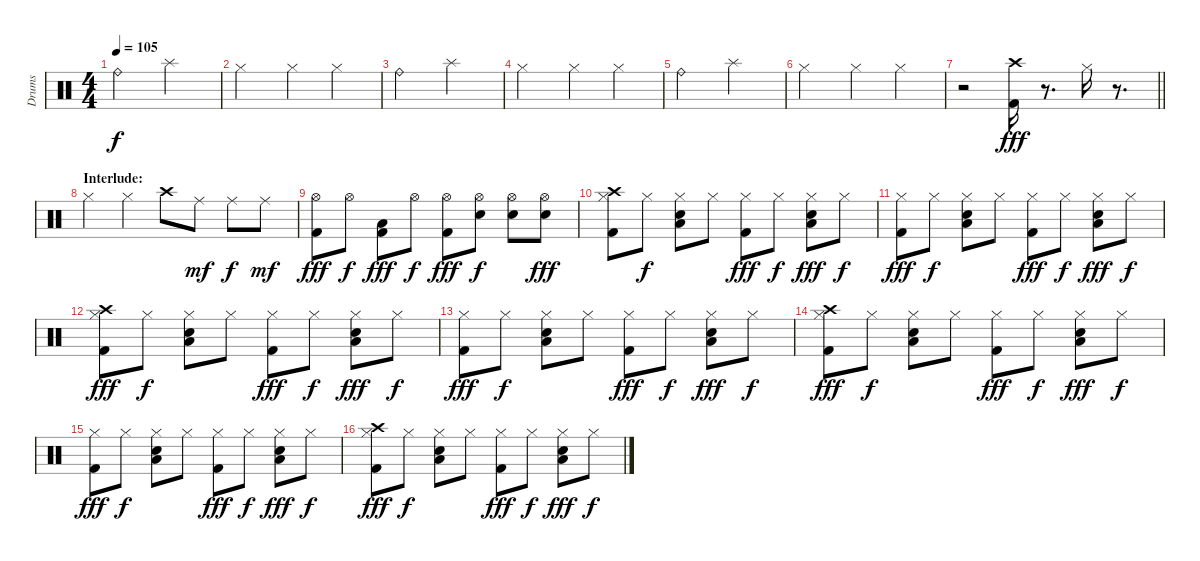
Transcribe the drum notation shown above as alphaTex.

\track ("Drums" "Drums") {instrument percussion}
\staff {score}
\articulation defaults
\ts (4 4)
\tempo 105
\clef neutral
\ks c "Ride (bell)".2{dy f} "Splash (hit)".2
|
"Hi-Hat (closed)".2 "Hi-Hat (closed)".4 "Hi-Hat (closed)".4 |
"Ride (bell)".2 "Splash (hit)".2 |
"Hi-Hat (closed)".2 "Hi-Hat (closed)".4 "Hi-Hat (closed)".4 |
"Ride (bell)".2 "Splash (hit)".2 |
"Hi-Hat (closed)".2 "Hi-Hat (closed)".4 "Hi-Hat (closed)".4 |
\barLineRight lightlight
r.2 ("Kick (hit) 2" "Crash high (hit)").16{dy fff} r.8{d} "Hi-Hat (closed)".16 r.8{d} |
\section ("" "Interlude:")
"Hi-Hat (closed)".4 "Hi-Hat (closed)".4 "Crash high (hit)".8 "Ride (middle)".8{dy mf} "Ride (middle)".8{dy f} "Ride (middle)".8{dy mf} |
("Hi-Hat (open)" "Kick (hit) 2").8{dy fff} "Hi-Hat (open)".8{dy f} ("Low Floor Tom (hit)" "Kick (hit) 2").8{dy fff} "Hi-Hat (open)".8{dy f} ("Hi-Hat (open)" "Kick (hit) 2").8{dy fff} ("Hi-Hat (open)" "Snare (hit) 2").8{dy f} ("Hi-Hat (open)" "Snare (hit) 2").8 ("Hi-Hat (open)" "Snare (hit) 2").8{dy fff} |
("Crash high (hit)" "Hi-Hat (closed)" "Kick (hit) 2").8 "Hi-Hat (closed)".8{dy f} ("Hi-Hat (closed)" "Low Floor Tom (hit)" "Snare (hit) 2").8 "Hi-Hat (closed)".8 ("Hi-Hat (closed)" "Kick (hit) 2").8{dy fff} "Hi-Hat (closed)".8{dy f} ("Hi-Hat (closed)" "Low Floor Tom (hit)" "Snare (hit) 2").8{dy fff} "Hi-Hat (closed)".8{dy f} |
("Hi-Hat (closed)" "Kick (hit) 2").8{dy fff} "Hi-Hat (closed)".8{dy f} ("Hi-Hat (closed)" "Low Floor Tom (hit)" "Snare (hit) 2").8 "Hi-Hat (closed)".8 ("Hi-Hat (closed)" "Kick (hit) 2").8{dy fff} "Hi-Hat (closed)".8{dy f} ("Hi-Hat (closed)" "Low Floor Tom (hit)" "Snare (hit) 2").8{dy fff} "Hi-Hat (closed)".8{dy f} |
("Crash high (hit)" "Hi-Hat (closed)" "Kick (hit) 2").8{dy fff} "Hi-Hat (closed)".8{dy f} ("Hi-Hat (closed)" "Low Floor Tom (hit)" "Snare (hit) 2").8 "Hi-Hat (closed)".8 ("Hi-Hat (closed)" "Kick (hit) 2").8{dy fff} "Hi-Hat (closed)".8{dy f} ("Hi-Hat (closed)" "Low Floor Tom (hit)" "Snare (hit) 2").8{dy fff} "Hi-Hat (closed)".8{dy f} |
("Hi-Hat (closed)" "Kick (hit) 2").8{dy fff} "Hi-Hat (closed)".8{dy f} ("Hi-Hat (closed)" "Low Floor Tom (hit)" "Snare (hit) 2").8 "Hi-Hat (closed)".8 ("Hi-Hat (closed)" "Kick (hit) 2").8{dy fff} "Hi-Hat (closed)".8{dy f} ("Hi-Hat (closed)" "Low Floor Tom (hit)" "Snare (hit) 2").8{dy fff} "Hi-Hat (closed)".8{dy f} |
("Crash high (hit)" "Hi-Hat (closed)" "Kick (hit) 2").8{dy fff} "Hi-Hat (closed)".8{dy f} ("Hi-Hat (closed)" "Low Floor Tom (hit)" "Snare (hit) 2").8 "Hi-Hat (closed)".8 ("Hi-Hat (closed)" "Kick (hit) 2").8{dy fff} "Hi-Hat (closed)".8{dy f} ("Hi-Hat (closed)" "Low Floor Tom (hit)" "Snare (hit) 2").8{dy fff} "Hi-Hat (closed)".8{dy f} |
("Hi-Hat (closed)" "Kick (hit) 2").8{dy fff} "Hi-Hat (closed)".8{dy f} ("Hi-Hat (closed)" "Low Floor Tom (hit)" "Snare (hit) 2").8 "Hi-Hat (closed)".8 ("Hi-Hat (closed)" "Kick (hit) 2").8{dy fff} "Hi-Hat (closed)".8{dy f} ("Hi-Hat (closed)" "Low Floor Tom (hit)" "Snare (hit) 2").8{dy fff} "Hi-Hat (closed)".8{dy f} |
("Crash high (hit)" "Hi-Hat (closed)" "Kick (hit) 2").8{dy fff} "Hi-Hat (closed)".8{dy f} ("Hi-Hat (closed)" "Low Floor Tom (hit)" "Snare (hit) 2").8 "Hi-Hat (closed)".8 ("Hi-Hat (closed)" "Kick (hit) 2").8{dy fff} "Hi-Hat (closed)".8{dy f} ("Hi-Hat (closed)" "Low Floor Tom (hit)" "Snare (hit) 2").8{dy fff} "Hi-Hat (closed)".8{dy f}
